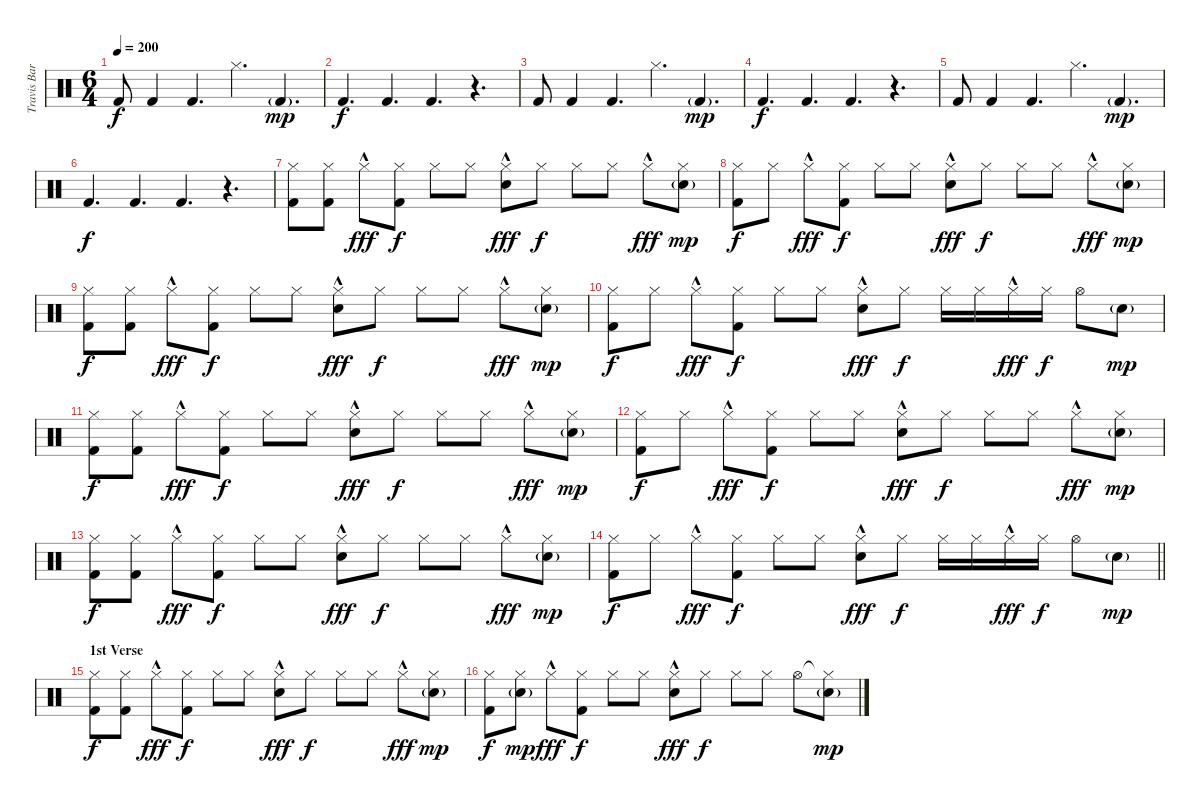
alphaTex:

\track ("Travis Barker - Drums" "Travis Bar") {instrument percussion}
\staff {score}
\articulation defaults
\ts (6 4)
\tempo 200
\clef neutral
\ks c "Kick (hit) 2".8{dy f} "Kick (hit) 2".4 "Kick (hit) 2".4{d} "Hi-Hat (closed)".4{d} "Kick (hit) 2"{g}.4{d dy mp}
|
"Kick (hit) 2".4{d dy f} "Kick (hit) 2".4{d} "Kick (hit) 2".4{d} r.4{d} |
"Kick (hit) 2".8 "Kick (hit) 2".4 "Kick (hit) 2".4{d} "Hi-Hat (closed)".4{d} "Kick (hit) 2"{g}.4{d dy mp} |
"Kick (hit) 2".4{d dy f} "Kick (hit) 2".4{d} "Kick (hit) 2".4{d} r.4{d} |
"Kick (hit) 2".8 "Kick (hit) 2".4 "Kick (hit) 2".4{d} "Hi-Hat (closed)".4{d} "Kick (hit) 2"{g}.4{d dy mp} |
"Kick (hit) 2".4{d dy f} "Kick (hit) 2".4{d} "Kick (hit) 2".4{d} r.4{d} |
("Hi-Hat (closed)" "Kick (hit) 2").8 ("Hi-Hat (closed)" "Kick (hit) 2").8 "Hi-Hat (closed)"{hac}.8{dy fff} ("Hi-Hat (closed)" "Kick (hit) 2").8{dy f} "Hi-Hat (closed)".8 "Hi-Hat (closed)".8 ("Hi-Hat (closed)"{hac} "Electric Snare (hit)").8{dy fff} "Hi-Hat (closed)".8{dy f} "Hi-Hat (closed)".8 "Hi-Hat (closed)".8 "Hi-Hat (closed)"{hac}.8{dy fff} ("Hi-Hat (closed)" "Electric Snare (hit)"{g}).8{dy mp} |
("Hi-Hat (closed)" "Kick (hit) 2").8{dy f} "Hi-Hat (closed)".8 "Hi-Hat (closed)"{hac}.8{dy fff} ("Hi-Hat (closed)" "Kick (hit) 2").8{dy f} "Hi-Hat (closed)".8 "Hi-Hat (closed)".8 ("Hi-Hat (closed)"{hac} "Electric Snare (hit)").8{dy fff} "Hi-Hat (closed)".8{dy f} "Hi-Hat (closed)".8 "Hi-Hat (closed)".8 "Hi-Hat (closed)"{hac}.8{dy fff} ("Hi-Hat (closed)" "Electric Snare (hit)"{g}).8{dy mp} |
("Hi-Hat (closed)" "Kick (hit) 2").8{dy f} ("Hi-Hat (closed)" "Kick (hit) 2").8 "Hi-Hat (closed)"{hac}.8{dy fff} ("Hi-Hat (closed)" "Kick (hit) 2").8{dy f} "Hi-Hat (closed)".8 "Hi-Hat (closed)".8 ("Hi-Hat (closed)"{hac} "Electric Snare (hit)").8{dy fff} "Hi-Hat (closed)".8{dy f} "Hi-Hat (closed)".8 "Hi-Hat (closed)".8 "Hi-Hat (closed)"{hac}.8{dy fff} ("Hi-Hat (closed)" "Electric Snare (hit)"{g}).8{dy mp} |
("Hi-Hat (closed)" "Kick (hit) 2").8{dy f} "Hi-Hat (closed)".8 "Hi-Hat (closed)"{hac}.8{dy fff} ("Hi-Hat (closed)" "Kick (hit) 2").8{dy f} "Hi-Hat (closed)".8 "Hi-Hat (closed)".8 ("Hi-Hat (closed)"{hac} "Electric Snare (hit)").8{dy fff} "Hi-Hat (closed)".8{dy f} "Hi-Hat (closed)".16 "Hi-Hat (closed)".16 "Hi-Hat (closed)"{hac}.16{dy fff} "Hi-Hat (closed)".16{dy f} "Hi-Hat (open)".8 "Electric Snare (hit)"{g}.8{dy mp} |
("Hi-Hat (closed)" "Kick (hit) 2").8{dy f} ("Hi-Hat (closed)" "Kick (hit) 2").8 "Hi-Hat (closed)"{hac}.8{dy fff} ("Hi-Hat (closed)" "Kick (hit) 2").8{dy f} "Hi-Hat (closed)".8 "Hi-Hat (closed)".8 ("Hi-Hat (closed)"{hac} "Electric Snare (hit)").8{dy fff} "Hi-Hat (closed)".8{dy f} "Hi-Hat (closed)".8 "Hi-Hat (closed)".8 "Hi-Hat (closed)"{hac}.8{dy fff} ("Hi-Hat (closed)" "Electric Snare (hit)"{g}).8{dy mp} |
("Hi-Hat (closed)" "Kick (hit) 2").8{dy f} "Hi-Hat (closed)".8 "Hi-Hat (closed)"{hac}.8{dy fff} ("Hi-Hat (closed)" "Kick (hit) 2").8{dy f} "Hi-Hat (closed)".8 "Hi-Hat (closed)".8 ("Hi-Hat (closed)"{hac} "Electric Snare (hit)").8{dy fff} "Hi-Hat (closed)".8{dy f} "Hi-Hat (closed)".8 "Hi-Hat (closed)".8 "Hi-Hat (closed)"{hac}.8{dy fff} ("Hi-Hat (closed)" "Electric Snare (hit)"{g}).8{dy mp} |
("Hi-Hat (closed)" "Kick (hit) 2").8{dy f} ("Hi-Hat (closed)" "Kick (hit) 2").8 "Hi-Hat (closed)"{hac}.8{dy fff} ("Hi-Hat (closed)" "Kick (hit) 2").8{dy f} "Hi-Hat (closed)".8 "Hi-Hat (closed)".8 ("Hi-Hat (closed)"{hac} "Electric Snare (hit)").8{dy fff} "Hi-Hat (closed)".8{dy f} "Hi-Hat (closed)".8 "Hi-Hat (closed)".8 "Hi-Hat (closed)"{hac}.8{dy fff} ("Hi-Hat (closed)" "Electric Snare (hit)"{g}).8{dy mp} |
\barLineRight lightlight
("Hi-Hat (closed)" "Kick (hit) 2").8{dy f} "Hi-Hat (closed)".8 "Hi-Hat (closed)"{hac}.8{dy fff} ("Hi-Hat (closed)" "Kick (hit) 2").8{dy f} "Hi-Hat (closed)".8 "Hi-Hat (closed)".8 ("Hi-Hat (closed)"{hac} "Electric Snare (hit)").8{dy fff} "Hi-Hat (closed)".8{dy f} "Hi-Hat (closed)".16 "Hi-Hat (closed)".16 "Hi-Hat (closed)"{hac}.16{dy fff} "Hi-Hat (closed)".16{dy f} "Hi-Hat (open)".8 "Electric Snare (hit)"{g}.8{dy mp} |
\section ("" "1st Verse")
("Hi-Hat (closed)" "Kick (hit) 2").8{dy f} ("Hi-Hat (closed)" "Kick (hit) 2").8 "Hi-Hat (closed)"{hac}.8{dy fff} ("Hi-Hat (closed)" "Kick (hit) 2").8{dy f} "Hi-Hat (closed)".8 "Hi-Hat (closed)".8 ("Hi-Hat (closed)"{hac} "Electric Snare (hit)").8{dy fff} "Hi-Hat (closed)".8{dy f} "Hi-Hat (closed)".8 "Hi-Hat (closed)".8 "Hi-Hat (closed)"{hac}.8{dy fff} ("Hi-Hat (closed)" "Electric Snare (hit)"{g}).8{dy mp} |
("Hi-Hat (closed)" "Kick (hit) 2").8{dy f} ("Hi-Hat (closed)" "Electric Snare (hit)"{g}).8{dy mp} "Hi-Hat (closed)"{hac}.8{dy fff} ("Hi-Hat (closed)" "Kick (hit) 2").8{dy f} "Hi-Hat (closed)".8 "Hi-Hat (closed)".8 ("Hi-Hat (closed)"{hac} "Electric Snare (hit)").8{dy fff} "Hi-Hat (closed)".8{dy f} "Hi-Hat (closed)".8 "Hi-Hat (closed)".8 "Hi-Hat (open)".8 ("Hi-Hat (closed)"{t} "Electric Snare (hit)"{g}).8{dy mp}
